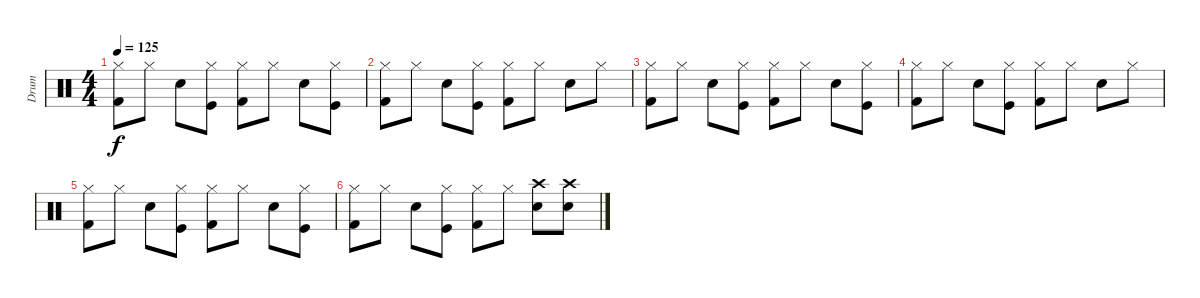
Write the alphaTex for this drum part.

\track ("Drum" "Drum") {instrument percussion}
\staff {score}
\articulation defaults
\ts (4 4)
\tempo 125
\clef neutral
\ks c
("Hi-Hat (closed)" "Kick (hit) 2").8{dy f} "Hi-Hat (closed)".8 "Electric Snare (hit)".8 ("Hi-Hat (closed)" "Kick (hit)").8 ("Hi-Hat (closed)" "Kick (hit) 2").8 "Hi-Hat (closed)".8 "Electric Snare (hit)".8 ("Hi-Hat (closed)" "Kick (hit)").8 |
("Hi-Hat (closed)" "Kick (hit) 2").8 "Hi-Hat (closed)".8 "Electric Snare (hit)".8 ("Hi-Hat (closed)" "Kick (hit)").8 ("Hi-Hat (closed)" "Kick (hit) 2").8 "Hi-Hat (closed)".8 "Electric Snare (hit)".8 "Hi-Hat (closed)".8 |
("Hi-Hat (closed)" "Kick (hit) 2").8 "Hi-Hat (closed)".8 "Electric Snare (hit)".8 ("Hi-Hat (closed)" "Kick (hit)").8 ("Hi-Hat (closed)" "Kick (hit) 2").8 "Hi-Hat (closed)".8 "Electric Snare (hit)".8 ("Hi-Hat (closed)" "Kick (hit)").8 |
("Hi-Hat (closed)" "Kick (hit) 2").8 "Hi-Hat (closed)".8 "Electric Snare (hit)".8 ("Hi-Hat (closed)" "Kick (hit)").8 ("Hi-Hat (closed)" "Kick (hit) 2").8 "Hi-Hat (closed)".8 "Electric Snare (hit)".8 "Hi-Hat (closed)".8 |
("Hi-Hat (closed)" "Kick (hit) 2").8 "Hi-Hat (closed)".8 "Electric Snare (hit)".8 ("Hi-Hat (closed)" "Kick (hit)").8 ("Hi-Hat (closed)" "Kick (hit) 2").8 "Hi-Hat (closed)".8 "Electric Snare (hit)".8 ("Hi-Hat (closed)" "Kick (hit)").8 |
("Hi-Hat (closed)" "Kick (hit) 2").8 "Hi-Hat (closed)".8 "Electric Snare (hit)".8 ("Hi-Hat (closed)" "Kick (hit)").8 ("Hi-Hat (closed)" "Kick (hit) 2").8 "Hi-Hat (closed)".8 ("Crash high (hit)" "Electric Snare (hit)").8 ("Crash high (hit)" "Electric Snare (hit)").8
